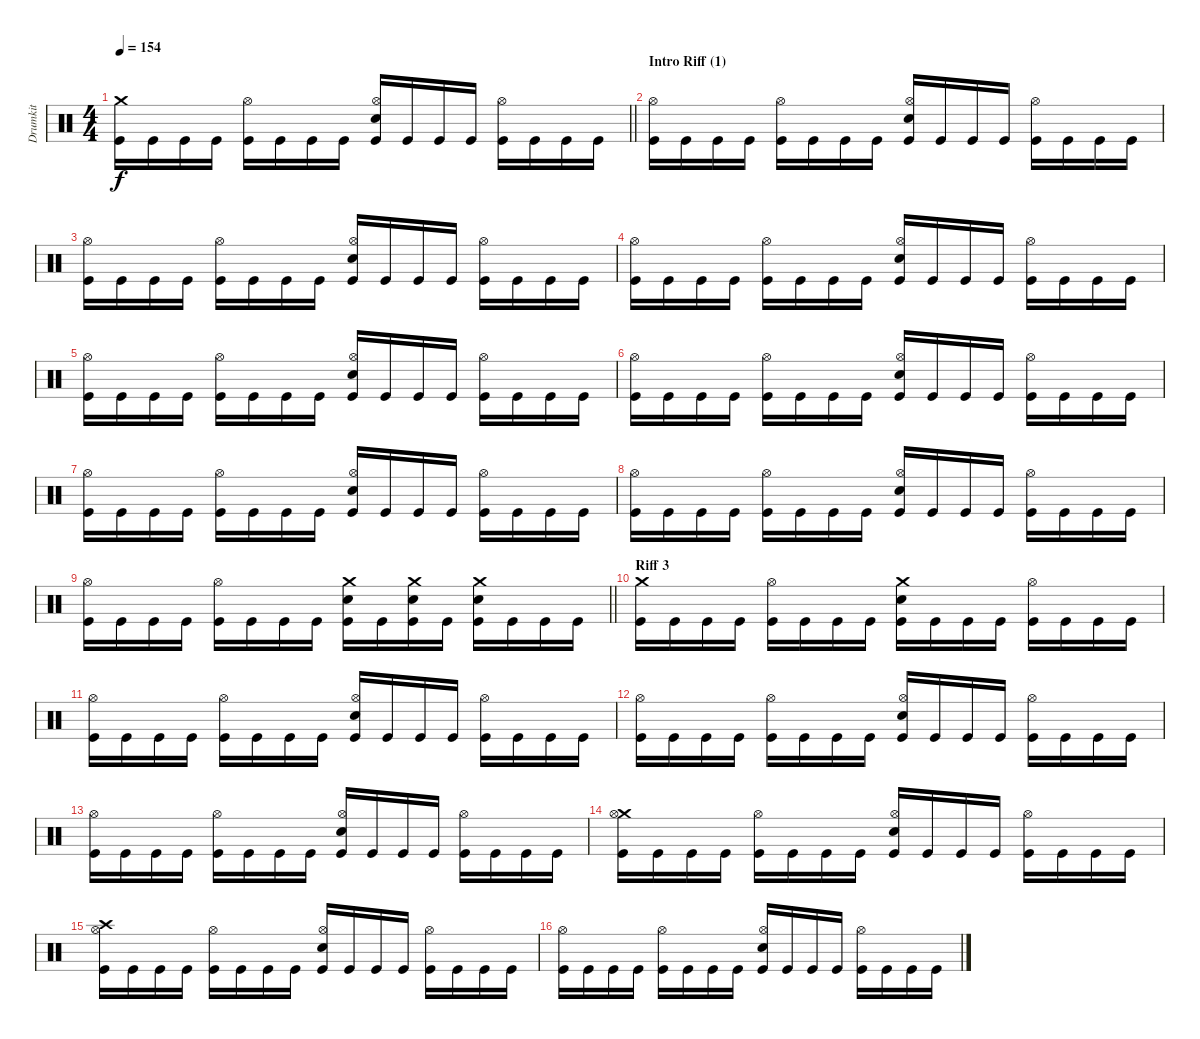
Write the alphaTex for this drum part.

\track ("Drumkit" "Drumkit") {mute instrument percussion}
\staff {score}
\articulation defaults
\ts (4 4)
\tempo 154
\clef neutral
\barLineRight lightlight
\ks c
("Crash medium (hit)" "Kick (hit)").16{dy f} "Kick (hit)".16 "Kick (hit)".16 "Kick (hit)".16 ("Hi-Hat (open)" "Kick (hit)").16 "Kick (hit)".16 "Kick (hit)".16 "Kick (hit)".16 ("Hi-Hat (open)" "Snare (hit) 2" "Kick (hit)").16 "Kick (hit)".16 "Kick (hit)".16 "Kick (hit)".16 ("Hi-Hat (open)" "Kick (hit)").16 "Kick (hit)".16 "Kick (hit)".16 "Kick (hit)".16 |
\section ("" "Intro Riff (1)")
("Hi-Hat (open)" "Kick (hit)").16 "Kick (hit)".16 "Kick (hit)".16 "Kick (hit)".16 ("Hi-Hat (open)" "Kick (hit)").16 "Kick (hit)".16 "Kick (hit)".16 "Kick (hit)".16 ("Hi-Hat (open)" "Snare (hit) 2" "Kick (hit)").16 "Kick (hit)".16 "Kick (hit)".16 "Kick (hit)".16 ("Hi-Hat (open)" "Kick (hit)").16 "Kick (hit)".16 "Kick (hit)".16 "Kick (hit)".16 |
("Hi-Hat (open)" "Kick (hit)").16 "Kick (hit)".16 "Kick (hit)".16 "Kick (hit)".16 ("Hi-Hat (open)" "Kick (hit)").16 "Kick (hit)".16 "Kick (hit)".16 "Kick (hit)".16 ("Hi-Hat (open)" "Snare (hit) 2" "Kick (hit)").16 "Kick (hit)".16 "Kick (hit)".16 "Kick (hit)".16 ("Hi-Hat (open)" "Kick (hit)").16 "Kick (hit)".16 "Kick (hit)".16 "Kick (hit)".16 |
("Hi-Hat (open)" "Kick (hit)").16 "Kick (hit)".16 "Kick (hit)".16 "Kick (hit)".16 ("Hi-Hat (open)" "Kick (hit)").16 "Kick (hit)".16 "Kick (hit)".16 "Kick (hit)".16 ("Hi-Hat (open)" "Snare (hit) 2" "Kick (hit)").16 "Kick (hit)".16 "Kick (hit)".16 "Kick (hit)".16 ("Hi-Hat (open)" "Kick (hit)").16 "Kick (hit)".16 "Kick (hit)".16 "Kick (hit)".16 |
("Hi-Hat (open)" "Kick (hit)").16 "Kick (hit)".16 "Kick (hit)".16 "Kick (hit)".16 ("Hi-Hat (open)" "Kick (hit)").16 "Kick (hit)".16 "Kick (hit)".16 "Kick (hit)".16 ("Hi-Hat (open)" "Snare (hit) 2" "Kick (hit)").16 "Kick (hit)".16 "Kick (hit)".16 "Kick (hit)".16 ("Hi-Hat (open)" "Kick (hit)").16 "Kick (hit)".16 "Kick (hit)".16 "Kick (hit)".16 |
("Hi-Hat (open)" "Kick (hit)").16 "Kick (hit)".16 "Kick (hit)".16 "Kick (hit)".16 ("Hi-Hat (open)" "Kick (hit)").16 "Kick (hit)".16 "Kick (hit)".16 "Kick (hit)".16 ("Hi-Hat (open)" "Snare (hit) 2" "Kick (hit)").16 "Kick (hit)".16 "Kick (hit)".16 "Kick (hit)".16 ("Hi-Hat (open)" "Kick (hit)").16 "Kick (hit)".16 "Kick (hit)".16 "Kick (hit)".16 |
("Hi-Hat (open)" "Kick (hit)").16 "Kick (hit)".16 "Kick (hit)".16 "Kick (hit)".16 ("Hi-Hat (open)" "Kick (hit)").16 "Kick (hit)".16 "Kick (hit)".16 "Kick (hit)".16 ("Hi-Hat (open)" "Snare (hit) 2" "Kick (hit)").16 "Kick (hit)".16 "Kick (hit)".16 "Kick (hit)".16 ("Hi-Hat (open)" "Kick (hit)").16 "Kick (hit)".16 "Kick (hit)".16 "Kick (hit)".16 |
("Hi-Hat (open)" "Kick (hit)").16 "Kick (hit)".16 "Kick (hit)".16 "Kick (hit)".16 ("Hi-Hat (open)" "Kick (hit)").16 "Kick (hit)".16 "Kick (hit)".16 "Kick (hit)".16 ("Hi-Hat (open)" "Snare (hit) 2" "Kick (hit)").16 "Kick (hit)".16 "Kick (hit)".16 "Kick (hit)".16 ("Hi-Hat (open)" "Kick (hit)").16 "Kick (hit)".16 "Kick (hit)".16 "Kick (hit)".16 |
\barLineRight lightlight
("Hi-Hat (open)" "Kick (hit)").16 "Kick (hit)".16 "Kick (hit)".16 "Kick (hit)".16 ("Hi-Hat (open)" "Kick (hit)").16 "Kick (hit)".16 "Kick (hit)".16 "Kick (hit)".16 ("Crash medium (hit)" "Snare (hit) 2" "Kick (hit)").16 "Kick (hit)".16 ("Crash medium (hit)" "Snare (hit) 2" "Kick (hit)").16 "Kick (hit)".16 ("Crash medium (hit)" "Snare (hit) 2" "Kick (hit)").16 "Kick (hit)".16 "Kick (hit)".16 "Kick (hit)".16 |
\section ("" "Riff 3")
("Crash medium (hit)" "Kick (hit)").16 "Kick (hit)".16 "Kick (hit)".16 "Kick (hit)".16 ("Hi-Hat (open)" "Kick (hit)").16 "Kick (hit)".16 "Kick (hit)".16 "Kick (hit)".16 ("Crash medium (hit)" "Snare (hit) 2" "Kick (hit)").16 "Kick (hit)".16 "Kick (hit)".16 "Kick (hit)".16 ("Hi-Hat (open)" "Kick (hit)").16 "Kick (hit)".16 "Kick (hit)".16 "Kick (hit)".16 |
("Hi-Hat (open)" "Kick (hit)").16 "Kick (hit)".16 "Kick (hit)".16 "Kick (hit)".16 ("Hi-Hat (open)" "Kick (hit)").16 "Kick (hit)".16 "Kick (hit)".16 "Kick (hit)".16 ("Hi-Hat (open)" "Snare (hit) 2" "Kick (hit)").16 "Kick (hit)".16 "Kick (hit)".16 "Kick (hit)".16 ("Hi-Hat (open)" "Kick (hit)").16 "Kick (hit)".16 "Kick (hit)".16 "Kick (hit)".16 |
("Hi-Hat (open)" "Kick (hit)").16 "Kick (hit)".16 "Kick (hit)".16 "Kick (hit)".16 ("Hi-Hat (open)" "Kick (hit)").16 "Kick (hit)".16 "Kick (hit)".16 "Kick (hit)".16 ("Hi-Hat (open)" "Snare (hit) 2" "Kick (hit)").16 "Kick (hit)".16 "Kick (hit)".16 "Kick (hit)".16 ("Hi-Hat (open)" "Kick (hit)").16 "Kick (hit)".16 "Kick (hit)".16 "Kick (hit)".16 |
("Hi-Hat (open)" "Kick (hit)").16 "Kick (hit)".16 "Kick (hit)".16 "Kick (hit)".16 ("Hi-Hat (open)" "Kick (hit)").16 "Kick (hit)".16 "Kick (hit)".16 "Kick (hit)".16 ("Hi-Hat (open)" "Snare (hit) 2" "Kick (hit)").16 "Kick (hit)".16 "Kick (hit)".16 "Kick (hit)".16 ("Hi-Hat (open)" "Kick (hit)").16 "Kick (hit)".16 "Kick (hit)".16 "Kick (hit)".16 |
("Crash medium (hit)" "Hi-Hat (open)" "Kick (hit)").16 "Kick (hit)".16 "Kick (hit)".16 "Kick (hit)".16 ("Hi-Hat (open)" "Kick (hit)").16 "Kick (hit)".16 "Kick (hit)".16 "Kick (hit)".16 ("Hi-Hat (open)" "Snare (hit) 2" "Kick (hit)").16 "Kick (hit)".16 "Kick (hit)".16 "Kick (hit)".16 ("Hi-Hat (open)" "Kick (hit)").16 "Kick (hit)".16 "Kick (hit)".16 "Kick (hit)".16 |
("Crash high (hit)" "Hi-Hat (open)" "Kick (hit)").16 "Kick (hit)".16 "Kick (hit)".16 "Kick (hit)".16 ("Hi-Hat (open)" "Kick (hit)").16 "Kick (hit)".16 "Kick (hit)".16 "Kick (hit)".16 ("Hi-Hat (open)" "Snare (hit) 2" "Kick (hit)").16 "Kick (hit)".16 "Kick (hit)".16 "Kick (hit)".16 ("Hi-Hat (open)" "Kick (hit)").16 "Kick (hit)".16 "Kick (hit)".16 "Kick (hit)".16 |
("Hi-Hat (open)" "Kick (hit)").16 "Kick (hit)".16 "Kick (hit)".16 "Kick (hit)".16 ("Hi-Hat (open)" "Kick (hit)").16 "Kick (hit)".16 "Kick (hit)".16 "Kick (hit)".16 ("Hi-Hat (open)" "Snare (hit) 2" "Kick (hit)").16 "Kick (hit)".16 "Kick (hit)".16 "Kick (hit)".16 ("Hi-Hat (open)" "Kick (hit)").16 "Kick (hit)".16 "Kick (hit)".16 "Kick (hit)".16
